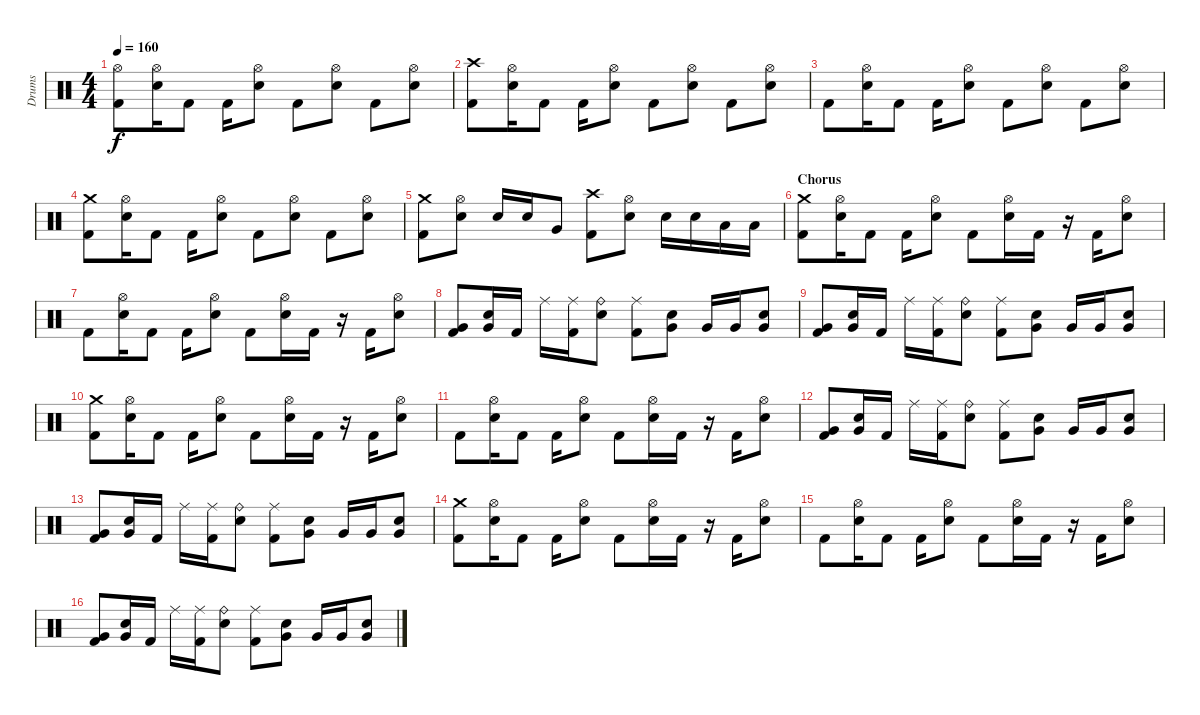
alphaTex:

\track ("Drums" "Drums") {instrument percussion}
\staff {score}
\articulation defaults
\ts (4 4)
\tempo 160
\clef neutral
\ks c
("Kick (hit) 2" "Hi-Hat (open)").8{dy f} ("Electric Snare (hit)" "Hi-Hat (open)").16 "Kick (hit) 2".8 "Kick (hit) 2".16 ("Electric Snare (hit)" "Hi-Hat (open)").8 "Kick (hit) 2".8 ("Electric Snare (hit)" "Hi-Hat (open)").8 "Kick (hit) 2".8 ("Electric Snare (hit)" "Hi-Hat (open)").8 |
("Kick (hit) 2" "Crash high (hit)").8 ("Electric Snare (hit)" "Hi-Hat (open)").16 "Kick (hit) 2".8 "Kick (hit) 2".16 ("Electric Snare (hit)" "Hi-Hat (open)").8 "Kick (hit) 2".8 ("Electric Snare (hit)" "Hi-Hat (open)").8 "Kick (hit) 2".8 ("Electric Snare (hit)" "Hi-Hat (open)").8 |
"Kick (hit) 2".8 ("Electric Snare (hit)" "Hi-Hat (open)").16 "Kick (hit) 2".8 "Kick (hit) 2".16 ("Electric Snare (hit)" "Hi-Hat (open)").8 "Kick (hit) 2".8 ("Electric Snare (hit)" "Hi-Hat (open)").8 "Kick (hit) 2".8 ("Electric Snare (hit)" "Hi-Hat (open)").8 |
("Kick (hit) 2" "Crash medium (hit)").8 ("Electric Snare (hit)" "Hi-Hat (open)").16 "Kick (hit) 2".8 "Kick (hit) 2".16 ("Electric Snare (hit)" "Hi-Hat (open)").8 "Kick (hit) 2".8 ("Electric Snare (hit)" "Hi-Hat (open)").8 "Kick (hit) 2".8 ("Electric Snare (hit)" "Hi-Hat (open)").8 |
("Kick (hit) 2" "Crash medium (hit)").8 ("Electric Snare (hit)" "Hi-Hat (open)").8 "Electric Snare (hit)".16 "Electric Snare (hit)".16 "Very Low Tom (hit)".8 ("Kick (hit) 2" "Crash high (hit)").8 ("Electric Snare (hit)" "Hi-Hat (open)").8 "Electric Snare (hit)".16 "Electric Snare (hit)".16 "Low Tom (hit)".16 "Low Tom (hit)".16 |
\section ("" "Chorus")
("Kick (hit) 2" "Crash medium (hit)").8 ("Electric Snare (hit)" "Hi-Hat (open)").16 "Kick (hit) 2".8 "Kick (hit) 2".16 ("Electric Snare (hit)" "Hi-Hat (open)").8 "Kick (hit) 2".8 ("Electric Snare (hit)" "Hi-Hat (open)").16 "Kick (hit) 2".16 r.16 "Kick (hit) 2".16 ("Electric Snare (hit)" "Hi-Hat (open)").8 |
"Kick (hit) 2".8 ("Electric Snare (hit)" "Hi-Hat (open)").16 "Kick (hit) 2".8 "Kick (hit) 2".16 ("Electric Snare (hit)" "Hi-Hat (open)").8 "Kick (hit) 2".8 ("Electric Snare (hit)" "Hi-Hat (open)").16 "Kick (hit) 2".16 r.16 "Kick (hit) 2".16 ("Electric Snare (hit)" "Hi-Hat (open)").8 |
("Kick (hit) 2" "Very Low Tom (hit)").8 ("Electric Snare (hit)" "Very Low Tom (hit)").16 "Kick (hit) 2".16 "Ride (middle)".16 ("Kick (hit) 2" "Ride (middle)").16 ("Electric Snare (hit)" "Ride (bell)").8 ("Kick (hit) 2" "Ride (middle)").8 ("Electric Snare (hit)" "Very Low Tom (hit)").8 "Very Low Tom (hit)".16 "Very Low Tom (hit)".16 ("Electric Snare (hit)" "Very Low Tom (hit)").8 |
("Kick (hit) 2" "Very Low Tom (hit)").8 ("Electric Snare (hit)" "Very Low Tom (hit)").16 "Kick (hit) 2".16 "Ride (middle)".16 ("Kick (hit) 2" "Ride (middle)").16 ("Electric Snare (hit)" "Ride (bell)").8 ("Kick (hit) 2" "Ride (middle)").8 ("Electric Snare (hit)" "Very Low Tom (hit)").8 "Very Low Tom (hit)".16 "Very Low Tom (hit)".16 ("Electric Snare (hit)" "Very Low Tom (hit)").8 |
("Kick (hit) 2" "Crash medium (hit)").8 ("Electric Snare (hit)" "Hi-Hat (open)").16 "Kick (hit) 2".8 "Kick (hit) 2".16 ("Electric Snare (hit)" "Hi-Hat (open)").8 "Kick (hit) 2".8 ("Electric Snare (hit)" "Hi-Hat (open)").16 "Kick (hit) 2".16 r.16 "Kick (hit) 2".16 ("Electric Snare (hit)" "Hi-Hat (open)").8 |
"Kick (hit) 2".8 ("Electric Snare (hit)" "Hi-Hat (open)").16 "Kick (hit) 2".8 "Kick (hit) 2".16 ("Electric Snare (hit)" "Hi-Hat (open)").8 "Kick (hit) 2".8 ("Electric Snare (hit)" "Hi-Hat (open)").16 "Kick (hit) 2".16 r.16 "Kick (hit) 2".16 ("Electric Snare (hit)" "Hi-Hat (open)").8 |
("Kick (hit) 2" "Very Low Tom (hit)").8 ("Electric Snare (hit)" "Very Low Tom (hit)").16 "Kick (hit) 2".16 "Ride (middle)".16 ("Kick (hit) 2" "Ride (middle)").16 ("Electric Snare (hit)" "Ride (bell)").8 ("Kick (hit) 2" "Ride (middle)").8 ("Electric Snare (hit)" "Very Low Tom (hit)").8 "Very Low Tom (hit)".16 "Very Low Tom (hit)".16 ("Electric Snare (hit)" "Very Low Tom (hit)").8 |
("Kick (hit) 2" "Very Low Tom (hit)").8 ("Electric Snare (hit)" "Very Low Tom (hit)").16 "Kick (hit) 2".16 "Ride (middle)".16 ("Kick (hit) 2" "Ride (middle)").16 ("Electric Snare (hit)" "Ride (bell)").8 ("Kick (hit) 2" "Ride (middle)").8 ("Electric Snare (hit)" "Very Low Tom (hit)").8 "Very Low Tom (hit)".16 "Very Low Tom (hit)".16 ("Electric Snare (hit)" "Very Low Tom (hit)").8 |
("Kick (hit) 2" "Crash medium (hit)").8 ("Electric Snare (hit)" "Hi-Hat (open)").16 "Kick (hit) 2".8 "Kick (hit) 2".16 ("Electric Snare (hit)" "Hi-Hat (open)").8 "Kick (hit) 2".8 ("Electric Snare (hit)" "Hi-Hat (open)").16 "Kick (hit) 2".16 r.16 "Kick (hit) 2".16 ("Electric Snare (hit)" "Hi-Hat (open)").8 |
"Kick (hit) 2".8 ("Electric Snare (hit)" "Hi-Hat (open)").16 "Kick (hit) 2".8 "Kick (hit) 2".16 ("Electric Snare (hit)" "Hi-Hat (open)").8 "Kick (hit) 2".8 ("Electric Snare (hit)" "Hi-Hat (open)").16 "Kick (hit) 2".16 r.16 "Kick (hit) 2".16 ("Electric Snare (hit)" "Hi-Hat (open)").8 |
("Kick (hit) 2" "Very Low Tom (hit)").8 ("Electric Snare (hit)" "Very Low Tom (hit)").16 "Kick (hit) 2".16 "Ride (middle)".16 ("Kick (hit) 2" "Ride (middle)").16 ("Electric Snare (hit)" "Ride (bell)").8 ("Kick (hit) 2" "Ride (middle)").8 ("Electric Snare (hit)" "Very Low Tom (hit)").8 "Very Low Tom (hit)".16 "Very Low Tom (hit)".16 ("Electric Snare (hit)" "Very Low Tom (hit)").8
